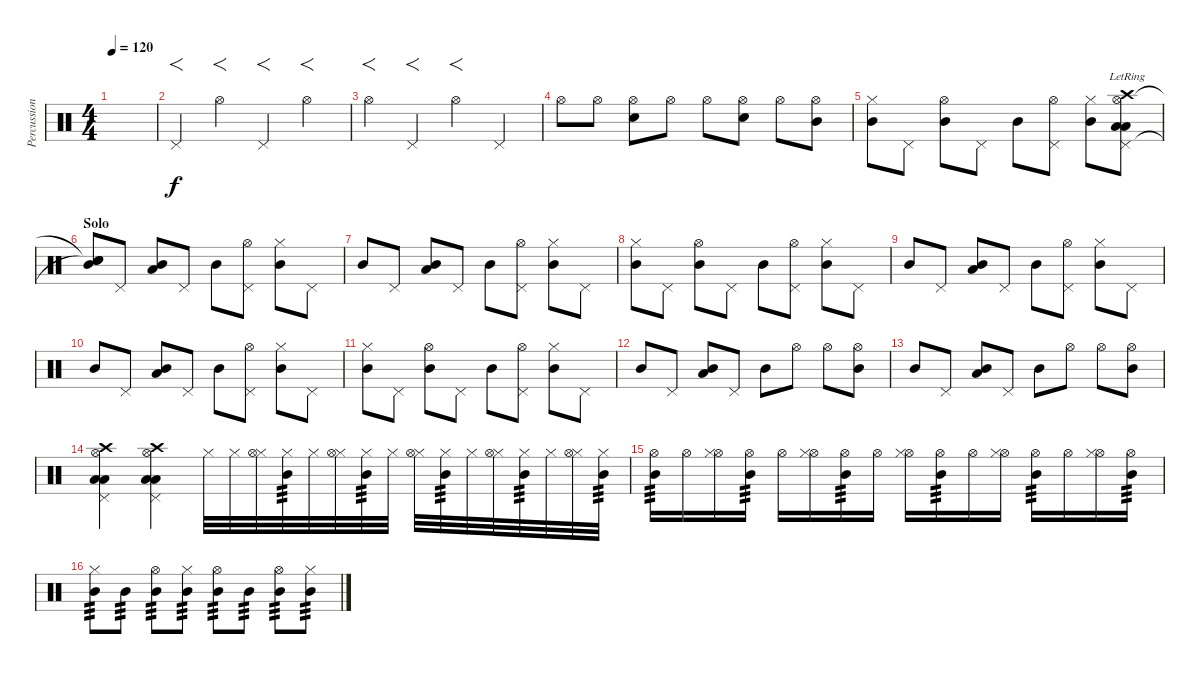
\track ("Percussions" "Percussion") {instrument percussion}
\staff {score}
\articulation defaults
\ts (4 4)
\tempo 120
\clef neutral
\ks c
|
"Pedal Hi-Hat (hit)".4{f} "Hi-Hat (open)".4{f} "Pedal Hi-Hat (hit)".4{f} "Hi-Hat (open)".4{f} |
"Hi-Hat (open)".4{f} "Pedal Hi-Hat (hit)".4{f} "Hi-Hat (open)".4{f} "Pedal Hi-Hat (hit)".4 |
"Hi-Hat (open)".8 "Hi-Hat (open)".8 ("Electric Snare (hit)" "Hi-Hat (open)").8 "Hi-Hat (open)".8 "Hi-Hat (open)".8 ("Electric Snare (hit)" "Hi-Hat (open)").8 "Hi-Hat (open)".8 ("Mid Tom (hit)" "Hi-Hat (open)").8 |
("Mid Tom (hit)" "Hi-Hat (closed)").8 "Pedal Hi-Hat (hit)".8 ("Mid Tom (hit)" "Hi-Hat (open)").8 "Pedal Hi-Hat (hit)".8 "Mid Tom (hit)".8 ("Pedal Hi-Hat (hit)" "Hi-Hat (open)").8 ("Mid Tom (hit)" "Hi-Hat (closed)").8 ("Low Tom (hit)"{lr} "Pedal Hi-Hat (hit)"{lr} "Hi-Hat (open)"{lr} "Crash high (hit)"{lr} "Low Tom (hit)"{lr}).8 |
\section ("" "Solo")
("Mid Tom (hit)" "Snare (hit)"{t} "Snare (hit)"{t}).8 "Pedal Hi-Hat (hit)".8 ("Mid Tom (hit)" "Low Tom (hit)").8 "Pedal Hi-Hat (hit)".8 "Mid Tom (hit)".8 ("Pedal Hi-Hat (hit)" "Hi-Hat (open)").8 ("Mid Tom (hit)" "Hi-Hat (closed)").8 "Pedal Hi-Hat (hit)".8 |
"Mid Tom (hit)".8 "Pedal Hi-Hat (hit)".8 ("Mid Tom (hit)" "Low Tom (hit)").8 "Pedal Hi-Hat (hit)".8 "Mid Tom (hit)".8 ("Pedal Hi-Hat (hit)" "Hi-Hat (open)").8 ("Mid Tom (hit)" "Hi-Hat (closed)").8 "Pedal Hi-Hat (hit)".8 |
("Mid Tom (hit)" "Hi-Hat (closed)").8 "Pedal Hi-Hat (hit)".8 ("Mid Tom (hit)" "Hi-Hat (open)").8 "Pedal Hi-Hat (hit)".8 "Mid Tom (hit)".8 ("Pedal Hi-Hat (hit)" "Hi-Hat (open)").8 ("Mid Tom (hit)" "Hi-Hat (closed)").8 "Pedal Hi-Hat (hit)".8 |
"Mid Tom (hit)".8 "Pedal Hi-Hat (hit)".8 ("Mid Tom (hit)" "Low Tom (hit)").8 "Pedal Hi-Hat (hit)".8 "Mid Tom (hit)".8 ("Pedal Hi-Hat (hit)" "Hi-Hat (open)").8 ("Mid Tom (hit)" "Hi-Hat (closed)").8 "Pedal Hi-Hat (hit)".8 |
"Mid Tom (hit)".8 "Pedal Hi-Hat (hit)".8 ("Mid Tom (hit)" "Low Tom (hit)").8 "Pedal Hi-Hat (hit)".8 "Mid Tom (hit)".8 ("Pedal Hi-Hat (hit)" "Hi-Hat (open)").8 ("Mid Tom (hit)" "Hi-Hat (closed)").8 "Pedal Hi-Hat (hit)".8 |
("Mid Tom (hit)" "Hi-Hat (closed)").8 "Pedal Hi-Hat (hit)".8 ("Mid Tom (hit)" "Hi-Hat (open)").8 "Pedal Hi-Hat (hit)".8 "Mid Tom (hit)".8 ("Pedal Hi-Hat (hit)" "Hi-Hat (open)").8 ("Mid Tom (hit)" "Hi-Hat (closed)").8 "Pedal Hi-Hat (hit)".8 |
"Mid Tom (hit)".8 "Pedal Hi-Hat (hit)".8 ("Mid Tom (hit)" "Low Tom (hit)").8 "Pedal Hi-Hat (hit)".8 "Mid Tom (hit)".8 "Hi-Hat (open)".8 "Hi-Hat (open)".8 ("Mid Tom (hit)" "Hi-Hat (open)").8 |
"Mid Tom (hit)".8 "Pedal Hi-Hat (hit)".8 ("Mid Tom (hit)" "Low Tom (hit)").8 "Pedal Hi-Hat (hit)".8 "Mid Tom (hit)".8 "Hi-Hat (open)".8 "Hi-Hat (open)".8 ("Mid Tom (hit)" "Hi-Hat (open)").8 |
("Low Tom (hit)" "Pedal Hi-Hat (hit)" "Hi-Hat (open)" "Crash high (hit)" "Low Tom (hit)").4 ("Low Tom (hit)" "Pedal Hi-Hat (hit)" "Hi-Hat (open)" "Crash high (hit)" "Low Tom (hit)").4 "Hi-Hat (closed)".32 "Hi-Hat (closed)".32 ("Hi-Hat (closed)" "Hi-Hat (open)").32 ("Hi-Hat (closed)" "Mid Tom (hit)").32{tp 3} "Hi-Hat (closed)".32 ("Hi-Hat (closed)" "Hi-Hat (open)").32 ("Hi-Hat (closed)" "Mid Tom (hit)").32{tp 3} "Hi-Hat (closed)".32 ("Hi-Hat (closed)" "Hi-Hat (open)").32 ("Hi-Hat (closed)" "Mid Tom (hit)").32{tp 3} "Hi-Hat (closed)".32 ("Hi-Hat (closed)" "Hi-Hat (open)").32 ("Hi-Hat (closed)" "Mid Tom (hit)").32{tp 3} "Hi-Hat (closed)".32 ("Hi-Hat (closed)" "Hi-Hat (open)").32 ("Hi-Hat (closed)" "Mid Tom (hit)").32{tp 3} |
("Hi-Hat (open)" "Mid Tom (hit)").16{tp 3} "Hi-Hat (open)".16 ("Hi-Hat (open)" "Hi-Hat (closed)").16 ("Hi-Hat (open)" "Mid Tom (hit)").16{tp 3} "Hi-Hat (open)".16 ("Hi-Hat (open)" "Hi-Hat (closed)").16 ("Hi-Hat (open)" "Mid Tom (hit)").16{tp 3} "Hi-Hat (open)".16 ("Hi-Hat (open)" "Hi-Hat (closed)").16 ("Hi-Hat (open)" "Mid Tom (hit)").16{tp 3} "Hi-Hat (open)".16 ("Hi-Hat (open)" "Hi-Hat (closed)").16 ("Hi-Hat (open)" "Mid Tom (hit)").16{tp 3} "Hi-Hat (open)".16 ("Hi-Hat (open)" "Hi-Hat (closed)").16 ("Hi-Hat (open)" "Mid Tom (hit)").16{tp 3} |
("Mid Tom (hit)" "Hi-Hat (closed)").8{tp 3} "Mid Tom (hit)".8{tp 3} ("Mid Tom (hit)" "Hi-Hat (open)").8{tp 3} ("Mid Tom (hit)" "Hi-Hat (closed)").8{tp 3} ("Mid Tom (hit)" "Hi-Hat (open)").8{tp 3} "Mid Tom (hit)".8{tp 3} ("Mid Tom (hit)" "Hi-Hat (open)").8{tp 3} ("Mid Tom (hit)" "Hi-Hat (closed)").8{tp 3}
